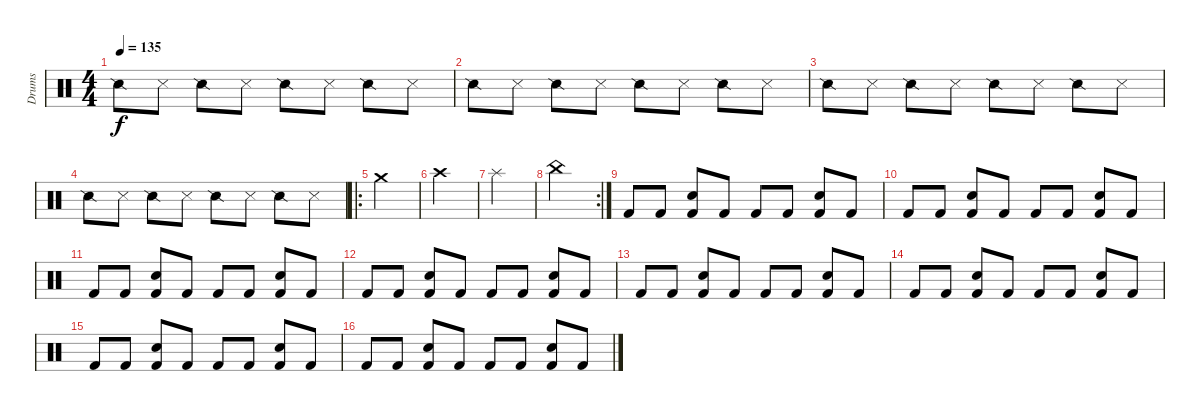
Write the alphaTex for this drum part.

\track ("Drums" "Drums") {instrument percussion}
\staff {score}
\articulation defaults
\ts (4 4)
\tempo 135
\clef neutral
\ks c "Snare (side stick) 2".8{dy f} "Snare (side stick) 3".8 "Snare (side stick) 2".8 "Snare (side stick) 3".8 "Snare (side stick) 2".8 "Snare (side stick) 3".8 "Snare (side stick) 2".8 "Snare (side stick) 3".8
|
"Snare (side stick) 2".8 "Snare (side stick) 3".8 "Snare (side stick) 2".8 "Snare (side stick) 3".8 "Snare (side stick) 2".8 "Snare (side stick) 3".8 "Snare (side stick) 2".8 "Snare (side stick) 3".8 |
"Snare (side stick) 2".8 "Snare (side stick) 3".8 "Snare (side stick) 2".8 "Snare (side stick) 3".8 "Snare (side stick) 2".8 "Snare (side stick) 3".8 "Snare (side stick) 2".8 "Snare (side stick) 3".8 |
"Snare (side stick) 2".8 "Snare (side stick) 3".8 "Snare (side stick) 2".8 "Snare (side stick) 3".8 "Snare (side stick) 2".8 "Snare (side stick) 3".8 "Snare (side stick) 2".8 "Snare (side stick) 3".8 |
\ro "Crash medium (hit)".4
|
"Crash high (hit)".4 |
"Splash (hit)".4 |
\rc 2 "China (hit)".4
|
"Kick (hit) 2".8 "Kick (hit) 2".8 ("Snare (hit) 2" "Kick (hit) 2").8 "Kick (hit) 2".8 "Kick (hit) 2".8 "Kick (hit) 2".8 ("Snare (hit) 2" "Kick (hit) 2").8 "Kick (hit) 2".8 |
"Kick (hit) 2".8 "Kick (hit) 2".8 ("Snare (hit) 2" "Kick (hit) 2").8 "Kick (hit) 2".8 "Kick (hit) 2".8 "Kick (hit) 2".8 ("Snare (hit) 2" "Kick (hit) 2").8 "Kick (hit) 2".8 |
"Kick (hit) 2".8 "Kick (hit) 2".8 ("Snare (hit) 2" "Kick (hit) 2").8 "Kick (hit) 2".8 "Kick (hit) 2".8 "Kick (hit) 2".8 ("Snare (hit) 2" "Kick (hit) 2").8 "Kick (hit) 2".8 |
"Kick (hit) 2".8 "Kick (hit) 2".8 ("Snare (hit) 2" "Kick (hit) 2").8 "Kick (hit) 2".8 "Kick (hit) 2".8 "Kick (hit) 2".8 ("Snare (hit) 2" "Kick (hit) 2").8 "Kick (hit) 2".8 |
"Kick (hit) 2".8 "Kick (hit) 2".8 ("Snare (hit) 2" "Kick (hit) 2").8 "Kick (hit) 2".8 "Kick (hit) 2".8 "Kick (hit) 2".8 ("Snare (hit) 2" "Kick (hit) 2").8 "Kick (hit) 2".8 |
"Kick (hit) 2".8 "Kick (hit) 2".8 ("Snare (hit) 2" "Kick (hit) 2").8 "Kick (hit) 2".8 "Kick (hit) 2".8 "Kick (hit) 2".8 ("Snare (hit) 2" "Kick (hit) 2").8 "Kick (hit) 2".8 |
"Kick (hit) 2".8 "Kick (hit) 2".8 ("Snare (hit) 2" "Kick (hit) 2").8 "Kick (hit) 2".8 "Kick (hit) 2".8 "Kick (hit) 2".8 ("Snare (hit) 2" "Kick (hit) 2").8 "Kick (hit) 2".8 |
"Kick (hit) 2".8 "Kick (hit) 2".8 ("Snare (hit) 2" "Kick (hit) 2").8 "Kick (hit) 2".8 "Kick (hit) 2".8 "Kick (hit) 2".8 ("Snare (hit) 2" "Kick (hit) 2").8 "Kick (hit) 2".8
